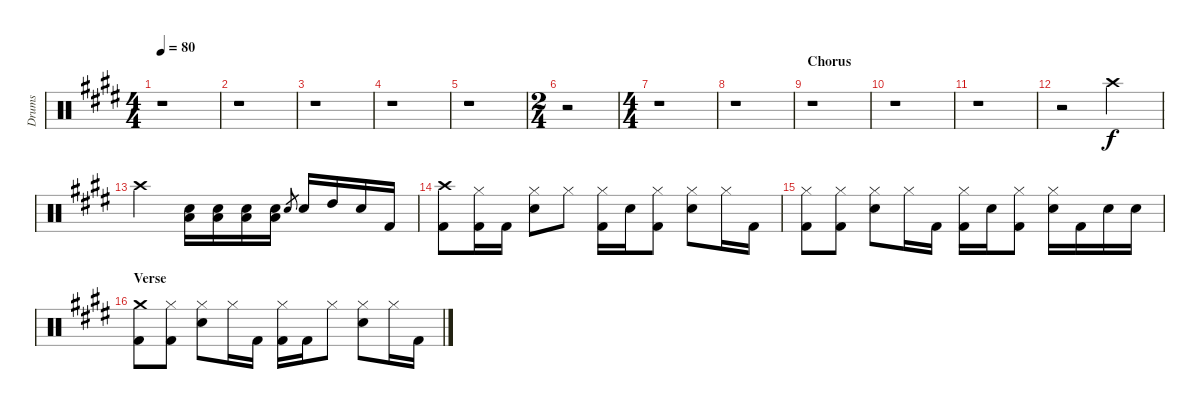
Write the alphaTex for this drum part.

\track ("Drums" "Drums") {instrument percussion}
\staff {score}
\articulation defaults
\ts (4 4)
\tempo 80
\clef neutral
\ks c#minor
r.1{dy f} |
r.1 |
r.1 |
r.1 |
r.1 |
\ts (2 4)
r.2 |
\ts (4 4)
r.1 |
r.1 |
\section ("" "Chorus")
r.1 |
r.1 |
r.1 |
r.2 "Crash high (hit)".2 |
"Crash high (hit)".2 ("Snare (hit) 2" "Low Tom (hit)").16 ("Snare (hit) 2" "Low Tom (hit)").16 ("Snare (hit) 2" "Low Tom (hit)").16 ("Snare (hit) 2" "Low Tom (hit)").16 "Snare (hit) 2".8{gr} "Snare (hit) 2".16 "High Tom (hit)".16 "Snare (hit) 2".16 "Kick (hit) 2".16 |
("Kick (hit) 2" "Crash high (hit)").8 ("Kick (hit) 2" "Hi-Hat (closed)").16 "Kick (hit) 2".16 ("Snare (hit) 2" "Hi-Hat (closed)").8 "Hi-Hat (closed)".8 ("Kick (hit) 2" "Hi-Hat (closed)").16 "Snare (hit) 2".16 ("Kick (hit) 2" "Hi-Hat (closed)").8 ("Snare (hit) 2" "Hi-Hat (closed)").8 "Hi-Hat (closed)".16 "Kick (hit) 2".16 |
("Kick (hit) 2" "Hi-Hat (closed)").8 ("Kick (hit) 2" "Hi-Hat (closed)").8 ("Snare (hit) 2" "Hi-Hat (closed)").8 "Hi-Hat (closed)".16 "Kick (hit) 2".16 ("Kick (hit) 2" "Hi-Hat (closed)").16 "Snare (hit) 2".16 ("Kick (hit) 2" "Hi-Hat (closed)").8 ("Snare (hit) 2" "Hi-Hat (closed)").16 "Kick (hit) 2".16 "Snare (hit) 2".16 "Snare (hit) 2".16 |
\section ("" "Verse")
("Kick (hit) 2" "Crash medium (hit)").8 ("Kick (hit) 2" "Hi-Hat (closed)").8 ("Snare (hit) 2" "Hi-Hat (closed)").8 "Hi-Hat (closed)".16 "Kick (hit) 2".16 ("Kick (hit) 2" "Hi-Hat (closed)").16 "Kick (hit) 2".16 "Hi-Hat (closed)".8 ("Snare (hit) 2" "Hi-Hat (closed)").8 "Hi-Hat (closed)".16 "Kick (hit) 2".16
